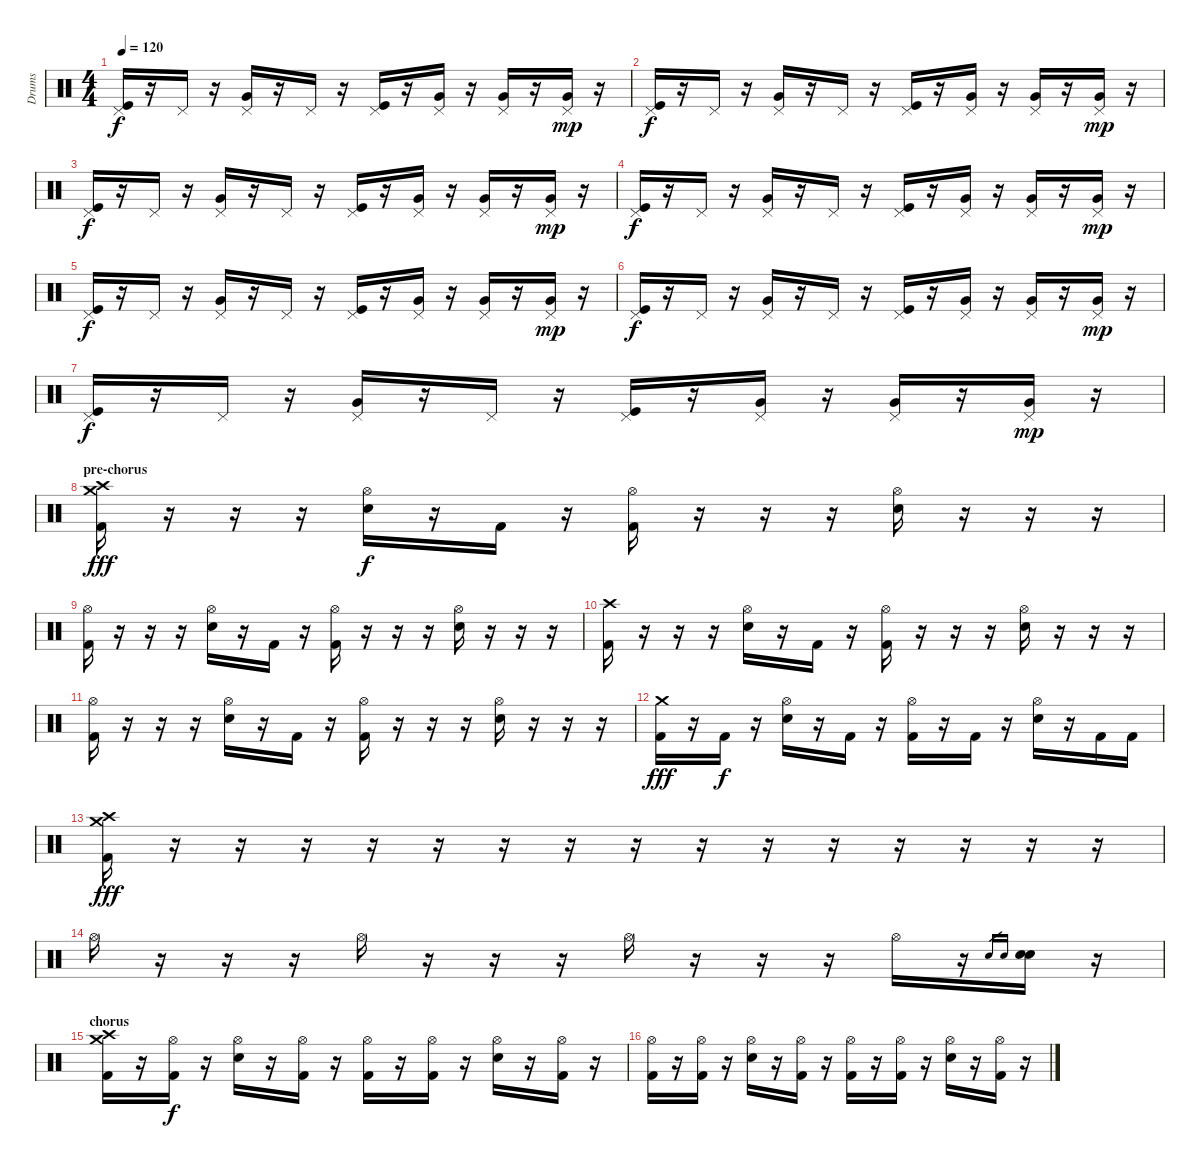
\track ("Drums" "Drums") {instrument percussion}
\staff {score}
\articulation defaults
\ts (4 4)
\tempo 120
\clef neutral
\ks c
("Pedal Hi-Hat (hit)" "Kick (hit)").16{dy f} r.16 "Pedal Hi-Hat (hit)".16 r.16 ("Pedal Hi-Hat (hit)" "Very Low Tom (hit)").16 r.16 "Pedal Hi-Hat (hit)".16 r.16 ("Pedal Hi-Hat (hit)" "Kick (hit)").16 r.16 ("Pedal Hi-Hat (hit)" "Very Low Tom (hit)").16 r.16 ("Pedal Hi-Hat (hit)" "Very Low Tom (hit)").16 r.16 ("Pedal Hi-Hat (hit)" "Very Low Tom (hit)").16{dy mp} r.16 |
("Pedal Hi-Hat (hit)" "Kick (hit)").16{dy f} r.16 "Pedal Hi-Hat (hit)".16 r.16 ("Pedal Hi-Hat (hit)" "Very Low Tom (hit)").16 r.16 "Pedal Hi-Hat (hit)".16 r.16 ("Pedal Hi-Hat (hit)" "Kick (hit)").16 r.16 ("Pedal Hi-Hat (hit)" "Very Low Tom (hit)").16 r.16 ("Pedal Hi-Hat (hit)" "Very Low Tom (hit)").16 r.16 ("Pedal Hi-Hat (hit)" "Very Low Tom (hit)").16{dy mp} r.16 |
("Pedal Hi-Hat (hit)" "Kick (hit)").16{dy f} r.16 "Pedal Hi-Hat (hit)".16 r.16 ("Pedal Hi-Hat (hit)" "Very Low Tom (hit)").16 r.16 "Pedal Hi-Hat (hit)".16 r.16 ("Pedal Hi-Hat (hit)" "Kick (hit)").16 r.16 ("Pedal Hi-Hat (hit)" "Very Low Tom (hit)").16 r.16 ("Pedal Hi-Hat (hit)" "Very Low Tom (hit)").16 r.16 ("Pedal Hi-Hat (hit)" "Very Low Tom (hit)").16{dy mp} r.16 |
("Pedal Hi-Hat (hit)" "Kick (hit)").16{dy f} r.16 "Pedal Hi-Hat (hit)".16 r.16 ("Pedal Hi-Hat (hit)" "Very Low Tom (hit)").16 r.16 "Pedal Hi-Hat (hit)".16 r.16 ("Pedal Hi-Hat (hit)" "Kick (hit)").16 r.16 ("Pedal Hi-Hat (hit)" "Very Low Tom (hit)").16 r.16 ("Pedal Hi-Hat (hit)" "Very Low Tom (hit)").16 r.16 ("Pedal Hi-Hat (hit)" "Very Low Tom (hit)").16{dy mp} r.16 |
("Pedal Hi-Hat (hit)" "Kick (hit)").16{dy f} r.16 "Pedal Hi-Hat (hit)".16 r.16 ("Pedal Hi-Hat (hit)" "Very Low Tom (hit)").16 r.16 "Pedal Hi-Hat (hit)".16 r.16 ("Pedal Hi-Hat (hit)" "Kick (hit)").16 r.16 ("Pedal Hi-Hat (hit)" "Very Low Tom (hit)").16 r.16 ("Pedal Hi-Hat (hit)" "Very Low Tom (hit)").16 r.16 ("Pedal Hi-Hat (hit)" "Very Low Tom (hit)").16{dy mp} r.16 |
("Pedal Hi-Hat (hit)" "Kick (hit)").16{dy f} r.16 "Pedal Hi-Hat (hit)".16 r.16 ("Pedal Hi-Hat (hit)" "Very Low Tom (hit)").16 r.16 "Pedal Hi-Hat (hit)".16 r.16 ("Pedal Hi-Hat (hit)" "Kick (hit)").16 r.16 ("Pedal Hi-Hat (hit)" "Very Low Tom (hit)").16 r.16 ("Pedal Hi-Hat (hit)" "Very Low Tom (hit)").16 r.16 ("Pedal Hi-Hat (hit)" "Very Low Tom (hit)").16{dy mp} r.16 |
("Pedal Hi-Hat (hit)" "Kick (hit)").16{dy f} r.16 "Pedal Hi-Hat (hit)".16 r.16 ("Pedal Hi-Hat (hit)" "Very Low Tom (hit)").16 r.16 "Pedal Hi-Hat (hit)".16 r.16 ("Pedal Hi-Hat (hit)" "Kick (hit)").16 r.16 ("Pedal Hi-Hat (hit)" "Very Low Tom (hit)").16 r.16 ("Pedal Hi-Hat (hit)" "Very Low Tom (hit)").16 r.16 ("Pedal Hi-Hat (hit)" "Very Low Tom (hit)").16{dy mp} r.16 |
\section ("" "pre-chorus")
("Crash high (hit)" "Crash medium (hit)" "Kick (hit) 2").16{dy fff volume 14} r.16 r.16 r.16 ("Hi-Hat (open)" "Electric Snare (hit)").16{dy f} r.16 "Kick (hit) 2".16 r.16 ("Hi-Hat (open)" "Kick (hit) 2").16 r.16 r.16 r.16 ("Hi-Hat (open)" "Electric Snare (hit)").16 r.16 r.16 r.16 |
("Hi-Hat (open)" "Kick (hit) 2").16 r.16 r.16 r.16 ("Hi-Hat (open)" "Electric Snare (hit)").16 r.16 "Kick (hit) 2".16 r.16 ("Hi-Hat (open)" "Kick (hit) 2").16 r.16 r.16 r.16 ("Hi-Hat (open)" "Electric Snare (hit)").16 r.16 r.16 r.16 |
("Crash high (hit)" "Kick (hit) 2").16 r.16 r.16 r.16 ("Hi-Hat (open)" "Electric Snare (hit)").16 r.16 "Kick (hit) 2".16 r.16 ("Hi-Hat (open)" "Kick (hit) 2").16 r.16 r.16 r.16 ("Hi-Hat (open)" "Electric Snare (hit)").16 r.16 r.16 r.16 |
("Hi-Hat (open)" "Kick (hit) 2").16 r.16 r.16 r.16 ("Hi-Hat (open)" "Electric Snare (hit)").16 r.16 "Kick (hit) 2".16 r.16 ("Hi-Hat (open)" "Kick (hit) 2").16 r.16 r.16 r.16 ("Hi-Hat (open)" "Electric Snare (hit)").16 r.16 r.16 r.16 |
("Crash medium (hit)" "Kick (hit) 2").16{dy fff} r.16 "Kick (hit) 2".16{dy f} r.16 ("Hi-Hat (open)" "Electric Snare (hit)").16 r.16 "Kick (hit) 2".16 r.16 ("Hi-Hat (open)" "Kick (hit) 2").16 r.16 "Kick (hit) 2".16 r.16 ("Hi-Hat (open)" "Electric Snare (hit)").16 r.16 "Kick (hit) 2".16 "Kick (hit) 2".16 |
("Crash high (hit)" "Crash medium (hit)" "Kick (hit) 2").16{dy fff} r.16 r.16 r.16 r.16 r.16 r.16 r.16 r.16 r.16 r.16 r.16 r.16 r.16 r.16 r.16 |
"Hi-Hat (open)".16 r.16 r.16 r.16 "Hi-Hat (open)".16 r.16 r.16 r.16 "Hi-Hat (open)".16 r.16 r.16 r.16 "Hi-Hat (open)".16 r.16 "Electric Snare (hit)".16{gr} "Electric Snare (hit)".16{gr} ("Electric Snare (hit)" "Electric Snare (hit)").16 r.16 |
\section ("" "chorus")
("Crash high (hit)" "Crash medium (hit)" "Kick (hit) 2").16 r.16 ("Hi-Hat (open)" "Kick (hit) 2").16{dy f} r.16 ("Hi-Hat (open)" "Electric Snare (hit)").16 r.16 ("Hi-Hat (open)" "Kick (hit) 2").16 r.16 ("Hi-Hat (open)" "Kick (hit) 2").16 r.16 ("Hi-Hat (open)" "Kick (hit) 2").16 r.16 ("Hi-Hat (open)" "Electric Snare (hit)").16 r.16 ("Hi-Hat (open)" "Kick (hit) 2").16 r.16 |
("Hi-Hat (open)" "Kick (hit) 2").16 r.16 ("Hi-Hat (open)" "Kick (hit) 2").16 r.16 ("Hi-Hat (open)" "Electric Snare (hit)").16 r.16 ("Hi-Hat (open)" "Kick (hit) 2").16 r.16 ("Hi-Hat (open)" "Kick (hit) 2").16 r.16 ("Hi-Hat (open)" "Kick (hit) 2").16 r.16 ("Hi-Hat (open)" "Electric Snare (hit)").16 r.16 ("Hi-Hat (open)" "Kick (hit) 2").16 r.16
